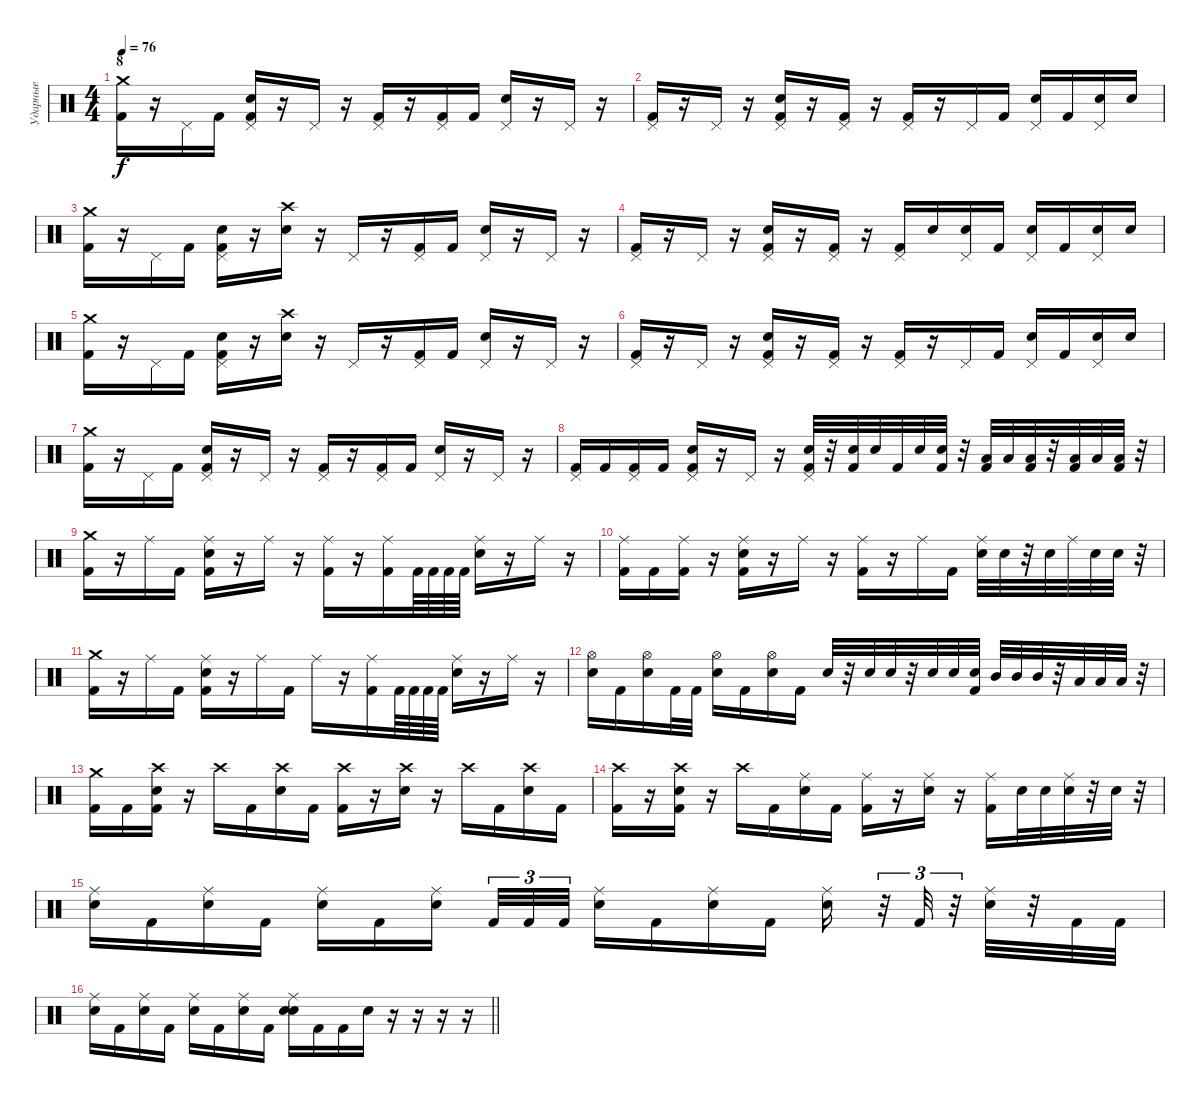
\track ("Ударные" "Ударные") {instrument percussion}
\staff {score}
\articulation defaults
\ts (4 4)
\section ("" "8")
\tempo 76
\clef neutral
\ks c
("Crash medium (hit)" "Kick (hit) 2").16{dy f} r.16 "Pedal Hi-Hat (hit)".16 "Kick (hit) 2".16 ("Pedal Hi-Hat (hit)" "Snare (hit) 2" "Kick (hit) 2").16 r.16 "Pedal Hi-Hat (hit)".16 r.16 ("Pedal Hi-Hat (hit)" "Kick (hit) 2").16 r.16 ("Pedal Hi-Hat (hit)" "Kick (hit) 2").16 "Kick (hit) 2".16 ("Pedal Hi-Hat (hit)" "Snare (hit) 2").16 r.16 "Pedal Hi-Hat (hit)".16 r.16 |
("Pedal Hi-Hat (hit)" "Kick (hit) 2").16 r.16 "Pedal Hi-Hat (hit)".16 r.16 ("Pedal Hi-Hat (hit)" "Snare (hit) 2" "Kick (hit) 2").16 r.16 ("Pedal Hi-Hat (hit)" "Kick (hit) 2").16 r.16 ("Pedal Hi-Hat (hit)" "Kick (hit) 2").16 r.16 "Pedal Hi-Hat (hit)".16 "Kick (hit) 2".16 ("Pedal Hi-Hat (hit)" "Snare (hit) 2").16 "Kick (hit) 2".16 ("Pedal Hi-Hat (hit)" "Snare (hit) 2").16 "Snare (hit) 2".16 |
("Crash medium (hit)" "Kick (hit) 2").16 r.16 "Pedal Hi-Hat (hit)".16 "Kick (hit) 2".16 ("Pedal Hi-Hat (hit)" "Snare (hit) 2" "Kick (hit) 2").16 r.16 ("Crash high (hit)" "Snare (hit) 2").16 r.16 "Pedal Hi-Hat (hit)".16 r.16 ("Pedal Hi-Hat (hit)" "Kick (hit) 2").16 "Kick (hit) 2".16 ("Pedal Hi-Hat (hit)" "Snare (hit) 2").16 r.16 "Pedal Hi-Hat (hit)".16 r.16 |
("Pedal Hi-Hat (hit)" "Kick (hit) 2").16 r.16 "Pedal Hi-Hat (hit)".16 r.16 ("Pedal Hi-Hat (hit)" "Snare (hit) 2" "Kick (hit) 2").16 r.16 ("Pedal Hi-Hat (hit)" "Kick (hit) 2").16 r.16 ("Pedal Hi-Hat (hit)" "Kick (hit) 2").16 "Snare (hit) 2".16 ("Pedal Hi-Hat (hit)" "Snare (hit) 2").16 "Kick (hit) 2".16 ("Pedal Hi-Hat (hit)" "Snare (hit) 2").16 "Kick (hit) 2".16 ("Pedal Hi-Hat (hit)" "Snare (hit) 2").16 "Snare (hit) 2".16 |
("Crash medium (hit)" "Kick (hit) 2").16 r.16 "Pedal Hi-Hat (hit)".16 "Kick (hit) 2".16 ("Pedal Hi-Hat (hit)" "Snare (hit) 2" "Kick (hit) 2").16 r.16 ("Crash high (hit)" "Snare (hit) 2").16 r.16 "Pedal Hi-Hat (hit)".16 r.16 ("Pedal Hi-Hat (hit)" "Kick (hit) 2").16 "Kick (hit) 2".16 ("Pedal Hi-Hat (hit)" "Snare (hit) 2").16 r.16 "Pedal Hi-Hat (hit)".16 r.16 |
("Pedal Hi-Hat (hit)" "Kick (hit) 2").16 r.16 "Pedal Hi-Hat (hit)".16 r.16 ("Pedal Hi-Hat (hit)" "Snare (hit) 2" "Kick (hit) 2").16 r.16 ("Pedal Hi-Hat (hit)" "Kick (hit) 2").16 r.16 ("Pedal Hi-Hat (hit)" "Kick (hit) 2").16 r.16 "Pedal Hi-Hat (hit)".16 "Kick (hit) 2".16 ("Pedal Hi-Hat (hit)" "Snare (hit) 2").16 "Kick (hit) 2".16 ("Pedal Hi-Hat (hit)" "Snare (hit) 2").16 "Snare (hit) 2".16 |
("Crash medium (hit)" "Kick (hit) 2").16 r.16 "Pedal Hi-Hat (hit)".16 "Kick (hit) 2".16 ("Pedal Hi-Hat (hit)" "Snare (hit) 2" "Kick (hit) 2").16 r.16 "Pedal Hi-Hat (hit)".16 r.16 ("Pedal Hi-Hat (hit)" "Kick (hit) 2").16 r.16 ("Pedal Hi-Hat (hit)" "Kick (hit) 2").16 "Kick (hit) 2".16 ("Pedal Hi-Hat (hit)" "Snare (hit) 2").16 r.16 "Pedal Hi-Hat (hit)".16 r.16 |
("Pedal Hi-Hat (hit)" "Kick (hit) 2").16 "Kick (hit) 2".16 ("Pedal Hi-Hat (hit)" "Kick (hit) 2").16 "Kick (hit) 2".16 ("Pedal Hi-Hat (hit)" "Snare (hit) 2" "Kick (hit) 2").16 r.16 "Pedal Hi-Hat (hit)".16 r.16 ("Pedal Hi-Hat (hit)" "Snare (hit) 2" "Kick (hit) 2").32 r.32 ("Snare (hit) 2" "Kick (hit) 2").32 "Snare (hit) 2".32 "Kick (hit) 2".32 "Snare (hit) 2".32 ("Snare (hit) 2" "Kick (hit) 2").32 r.32 ("Low Floor Tom (hit)" "Kick (hit) 2").32 "Low Floor Tom (hit)".32 ("Low Floor Tom (hit)" "Kick (hit) 2").32 r.32 ("Low Floor Tom (hit)" "Kick (hit) 2").32 "Low Floor Tom (hit)".32 ("Low Floor Tom (hit)" "Kick (hit) 2").32 r.32 |
("Crash medium (hit)" "Kick (hit) 2").16 r.16 "Ride (middle)".16 "Kick (hit) 2".16 ("Ride (middle)" "Snare (hit) 2" "Kick (hit) 2").16 r.16 "Ride (middle)".16 r.16 ("Ride (middle)" "Kick (hit) 2").16 r.16 ("Ride (middle)" "Kick (hit) 2").16 "Kick (hit) 2".64 "Kick (hit) 2".64 "Kick (hit) 2".64 "Kick (hit) 2".64 ("Ride (middle)" "Snare (hit) 2").16 r.16 "Ride (middle)".16 r.16 |
("Ride (middle)" "Kick (hit) 2").16 "Kick (hit) 2".16 ("Ride (middle)" "Kick (hit) 2").16 r.16 ("Ride (middle)" "Snare (hit) 2" "Kick (hit) 2").16 r.16 "Ride (middle)".16 r.16 ("Ride (middle)" "Kick (hit) 2").16 r.16 "Ride (middle)".16 "Kick (hit) 2".16 ("Ride (middle)" "Snare (hit) 2").32 "Snare (hit) 2".32 r.32 "Snare (hit) 2".32 "Ride (middle)".32 "Snare (hit) 2".32 "Snare (hit) 2".32 r.32 |
("Crash medium (hit)" "Kick (hit) 2").16 r.16 "Ride (middle)".16 "Kick (hit) 2".16 ("Ride (middle)" "Snare (hit) 2" "Kick (hit) 2").16 r.16 "Ride (middle)".16 "Kick (hit) 2".16 "Ride (middle)".16 r.16 ("Ride (middle)" "Kick (hit) 2").16 "Kick (hit) 2".64 "Kick (hit) 2".64 "Kick (hit) 2".64 "Kick (hit) 2".64 ("Ride (middle)" "Snare (hit) 2").16 r.16 "Ride (middle)".16 r.16 |
("Hi-Hat (open)" "Snare (hit) 2").16 "Kick (hit) 2".16 ("Hi-Hat (open)" "Snare (hit) 2").16 "Kick (hit) 2".32 "Kick (hit) 2".32 ("Hi-Hat (open)" "Snare (hit) 2").16 "Kick (hit) 2".16 ("Hi-Hat (open)" "Snare (hit) 2").16 "Kick (hit) 2".16 "Snare (hit) 2".32 r.32 "Snare (hit) 2".32 "Snare (hit) 2".32 r.32 "Snare (hit) 2".32 "Snare (hit) 2".32 ("Snare (hit) 2" "Kick (hit) 2").32 "Mid Tom (hit)".32 "Mid Tom (hit)".32 "Mid Tom (hit)".32 r.32 "Low Tom (hit)".32 "Low Tom (hit)".32 "Low Tom (hit)".32 r.32 |
("Crash medium (hit)" "Kick (hit) 2").16 "Kick (hit) 2".16 ("Crash high (hit)" "Snare (hit) 2" "Kick (hit) 2").16 r.16 "Crash high (hit)".16 "Kick (hit) 2".16 ("Crash high (hit)" "Snare (hit) 2").16 "Kick (hit) 2".16 ("Crash high (hit)" "Kick (hit) 2").16 r.16 ("Crash high (hit)" "Snare (hit) 2").16 r.16 "Crash high (hit)".16 "Kick (hit) 2".16 ("Crash high (hit)" "Snare (hit) 2").16 "Kick (hit) 2".16 |
("Crash high (hit)" "Kick (hit) 2").16 r.16 ("Crash high (hit)" "Snare (hit) 2" "Kick (hit) 2").16 r.16 "Crash high (hit)".16 "Kick (hit) 2".16 ("Ride (middle)" "Snare (hit) 2").16 "Kick (hit) 2".16 ("Ride (middle)" "Kick (hit) 2").16 r.16 ("Ride (middle)" "Snare (hit) 2").16 r.16 ("Ride (middle)" "Kick (hit) 2").16 "Snare (hit) 2".32 "Snare (hit) 2".32 ("Ride (middle)" "Snare (hit) 2").32 r.32 "Snare (hit) 2".32 r.32 |
("Ride (middle)" "Snare (hit) 2").16 "Kick (hit) 2".16 ("Ride (middle)" "Snare (hit) 2").16 "Kick (hit) 2".16 ("Ride (middle)" "Snare (hit) 2").16 "Kick (hit) 2".16 ("Ride (middle)" "Snare (hit) 2").16{beam splitsecondary} "Kick (hit) 2".32{tu (3 2)} "Kick (hit) 2".32{tu (3 2)} "Kick (hit) 2".32{tu (3 2)} ("Ride (middle)" "Snare (hit) 2").16 "Kick (hit) 2".16 ("Ride (middle)" "Snare (hit) 2").16 "Kick (hit) 2".16 ("Ride (middle)" "Snare (hit) 2").16 r.32{tu (3 2)} "Kick (hit) 2".32{tu (3 2)} r.32{tu (3 2)} ("Ride (middle)" "Snare (hit) 2").32 r.32 "Kick (hit) 2".32 "Kick (hit) 2".32 |
\barLineRight lightlight
("Ride (middle)" "Snare (hit) 2").16 "Kick (hit) 2".16 ("Ride (middle)" "Snare (hit) 2").16 "Kick (hit) 2".16 ("Ride (middle)" "Snare (hit) 2").16 "Kick (hit) 2".16 ("Ride (middle)" "Snare (hit) 2").16 "Kick (hit) 2".16 ("Ride (middle)" "Snare (hit) 2" "Snare (hit) 2").16 "Kick (hit) 2".16 "Kick (hit) 2".16 "Snare (hit) 2".16 r.16 r.16 r.16 r.16
